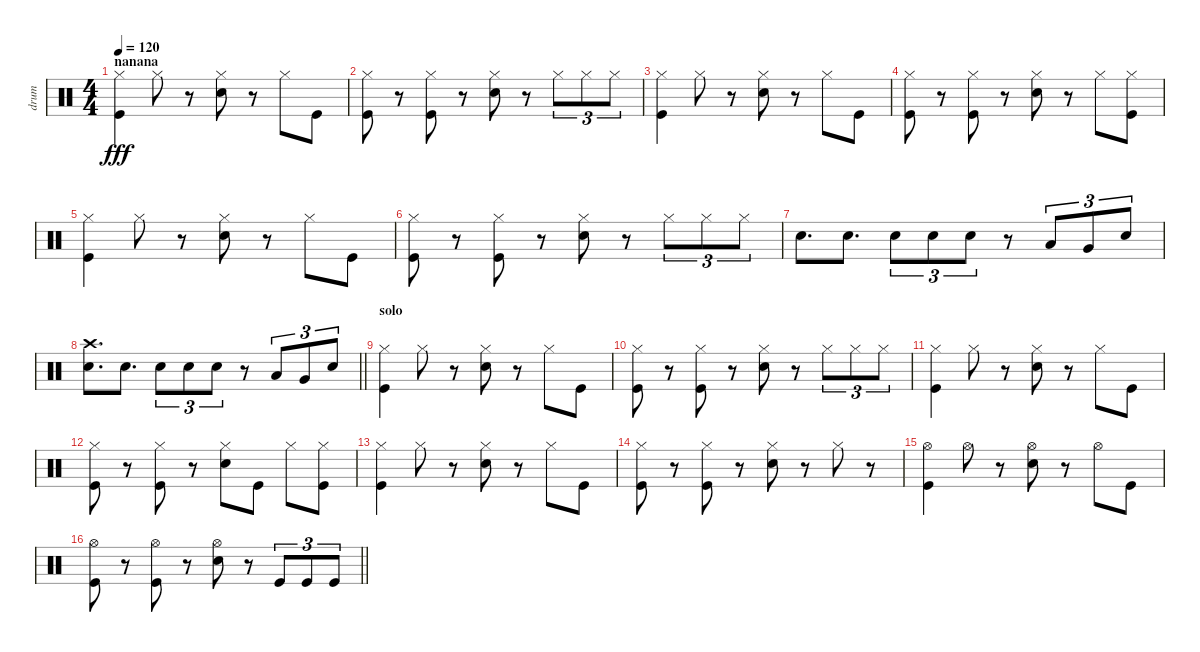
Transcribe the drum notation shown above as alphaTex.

\track ("drum" "drum") {instrument percussion}
\staff {score}
\articulation defaults
\ts (4 4)
\section ("" "nanana")
\tempo 120
\clef neutral
\ks c
("Hi-Hat (closed)" "Kick (hit)").4{dy fff} "Hi-Hat (closed)".8 r.8 ("Hi-Hat (closed)" "Hand Clap (hit)").8 r.8 "Hi-Hat (closed)".8 "Kick (hit)".8 |
("Hi-Hat (closed)" "Kick (hit)").8 r.8 ("Hi-Hat (closed)" "Kick (hit)").8 r.8 ("Hi-Hat (closed)" "Hand Clap (hit)").8 r.8 "Hi-Hat (closed)".8{tu (3 2)} "Hi-Hat (closed)".8{tu (3 2)} "Hi-Hat (closed)".8{tu (3 2)} |
("Hi-Hat (closed)" "Kick (hit)").4 "Hi-Hat (closed)".8 r.8 ("Hi-Hat (closed)" "Hand Clap (hit)").8 r.8 "Hi-Hat (closed)".8 "Kick (hit)".8 |
("Hi-Hat (closed)" "Kick (hit)").8 r.8 ("Hi-Hat (closed)" "Kick (hit)").8 r.8 ("Hi-Hat (closed)" "Hand Clap (hit)").8 r.8 "Hi-Hat (closed)".8 ("Hi-Hat (closed)" "Kick (hit)").8 |
("Hi-Hat (closed)" "Kick (hit)").4 "Hi-Hat (closed)".8 r.8 ("Hi-Hat (closed)" "Hand Clap (hit)").8 r.8 "Hi-Hat (closed)".8 "Kick (hit)".8 |
("Hi-Hat (closed)" "Kick (hit)").8 r.8 ("Hi-Hat (closed)" "Kick (hit)").8 r.8 ("Hi-Hat (closed)" "Hand Clap (hit)").8 r.8 "Hi-Hat (closed)".8{tu (3 2)} "Hi-Hat (closed)".8{tu (3 2)} "Hi-Hat (closed)".8{tu (3 2)} |
"Electric Snare (hit)".8{d} "Electric Snare (hit)".8{d} "Electric Snare (hit)".8{tu (3 2)} "Electric Snare (hit)".8{tu (3 2)} "Electric Snare (hit)".8{tu (3 2)} r.8 "Low Tom (hit)".8{tu (3 2)} "Very Low Tom (hit)".8{tu (3 2)} "Electric Snare (hit)".8{tu (3 2)} |
\barLineRight lightlight
("Crash high (hit)" "Electric Snare (hit)").8{d} "Electric Snare (hit)".8{d} "Electric Snare (hit)".8{tu (3 2)} "Electric Snare (hit)".8{tu (3 2)} "Electric Snare (hit)".8{tu (3 2)} r.8 "Low Tom (hit)".8{tu (3 2)} "Very Low Tom (hit)".8{tu (3 2)} "Electric Snare (hit)".8{tu (3 2)} |
\section ("" "solo")
("Hi-Hat (closed)" "Kick (hit)").4 "Hi-Hat (closed)".8 r.8 ("Hi-Hat (closed)" "Hand Clap (hit)").8 r.8 "Hi-Hat (closed)".8 "Kick (hit)".8 |
("Hi-Hat (closed)" "Kick (hit)").8 r.8 ("Hi-Hat (closed)" "Kick (hit)").8 r.8 ("Hi-Hat (closed)" "Hand Clap (hit)").8 r.8 "Hi-Hat (closed)".8{tu (3 2)} "Hi-Hat (closed)".8{tu (3 2)} "Hi-Hat (closed)".8{tu (3 2)} |
("Hi-Hat (closed)" "Kick (hit)").4 "Hi-Hat (closed)".8 r.8 ("Hi-Hat (closed)" "Hand Clap (hit)").8 r.8 "Hi-Hat (closed)".8 "Kick (hit)".8 |
("Hi-Hat (closed)" "Kick (hit)").8 r.8 ("Hi-Hat (closed)" "Kick (hit)").8 r.8 ("Hi-Hat (closed)" "Hand Clap (hit)").8 "Kick (hit)".8 "Hi-Hat (closed)".8 ("Hi-Hat (closed)" "Kick (hit)").8 |
("Hi-Hat (closed)" "Kick (hit)").4 "Hi-Hat (closed)".8 r.8 ("Hi-Hat (closed)" "Hand Clap (hit)").8 r.8 "Hi-Hat (closed)".8 "Kick (hit)".8 |
("Hi-Hat (closed)" "Kick (hit)").8 r.8 ("Hi-Hat (closed)" "Kick (hit)").8 r.8 ("Hi-Hat (closed)" "Hand Clap (hit)").8 r.8 "Hi-Hat (closed)".8 r.8 |
("Hi-Hat (open)" "Kick (hit)").4 "Hi-Hat (open)".8 r.8 ("Hi-Hat (open)" "Hand Clap (hit)").8 r.8 "Hi-Hat (open)".8 "Kick (hit)".8 |
\barLineRight lightlight
("Hi-Hat (open)" "Kick (hit)").8 r.8 ("Hi-Hat (open)" "Kick (hit)").8 r.8 ("Hi-Hat (open)" "Hand Clap (hit)").8 r.8 "Kick (hit)".8{tu (3 2)} "Kick (hit)".8{tu (3 2)} "Kick (hit)".8{tu (3 2)}
